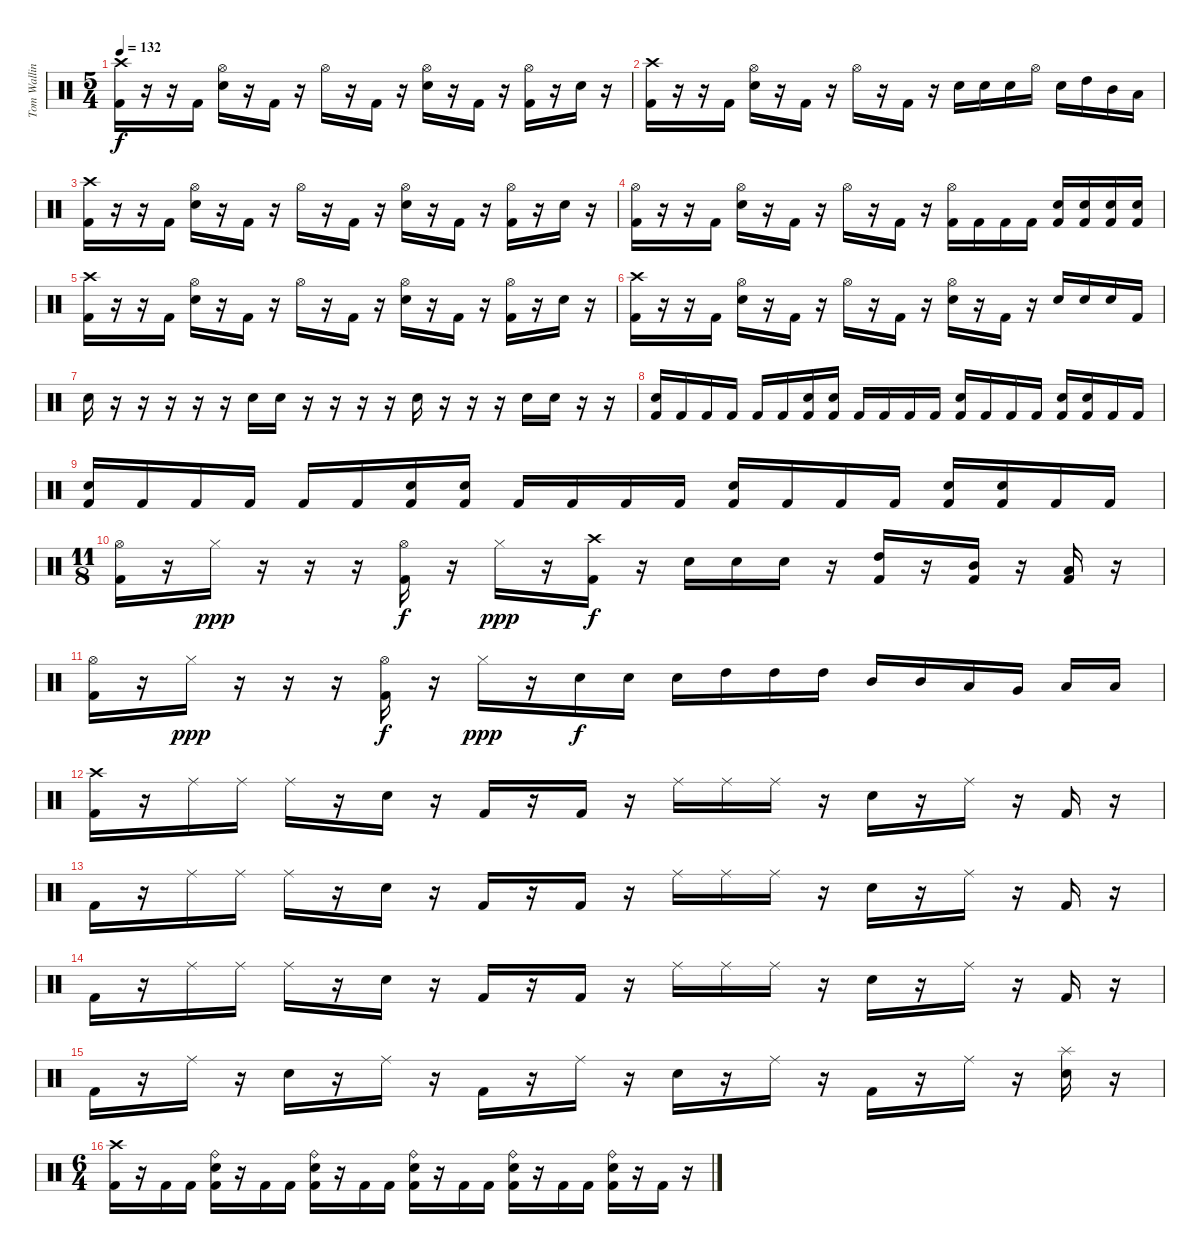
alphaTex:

\track ("Tom Walling [Drums]" "Tom Wallin") {instrument percussion}
\staff {score}
\articulation defaults
\ts (5 4)
\tempo 132
\clef neutral
\ks c
("Crash high (hit)" "Kick (hit) 2").16{dy f} r.16 r.16 "Kick (hit) 2".16 ("Hi-Hat (open)" "Electric Snare (hit)").16 r.16 "Kick (hit) 2".16 r.16 "Hi-Hat (open)".16 r.16 "Kick (hit) 2".16 r.16 ("Hi-Hat (open)" "Electric Snare (hit)").16 r.16 "Kick (hit) 2".16 r.16 ("Hi-Hat (open)" "Kick (hit) 2").16 r.16 "Electric Snare (hit)".16 r.16 |
("Crash high (hit)" "Kick (hit) 2").16 r.16 r.16 "Kick (hit) 2".16 ("Hi-Hat (open)" "Electric Snare (hit)").16 r.16 "Kick (hit) 2".16 r.16 "Hi-Hat (open)".16 r.16 "Kick (hit) 2".16 r.16 "Electric Snare (hit)".16 "Electric Snare (hit)".16 "Electric Snare (hit)".16 "Hi-Hat (open)".16 "Electric Snare (hit)".16 "High Tom (hit)".16 "Mid Tom (hit)".16 "Low Tom (hit)".16 |
("Crash high (hit)" "Kick (hit) 2").16 r.16 r.16 "Kick (hit) 2".16 ("Hi-Hat (open)" "Electric Snare (hit)").16 r.16 "Kick (hit) 2".16 r.16 "Hi-Hat (open)".16 r.16 "Kick (hit) 2".16 r.16 ("Hi-Hat (open)" "Electric Snare (hit)").16 r.16 "Kick (hit) 2".16 r.16 ("Hi-Hat (open)" "Kick (hit) 2").16 r.16 "Electric Snare (hit)".16 r.16 |
("Hi-Hat (open)" "Kick (hit) 2").16 r.16 r.16 "Kick (hit) 2".16 ("Hi-Hat (open)" "Electric Snare (hit)").16 r.16 "Kick (hit) 2".16 r.16 "Hi-Hat (open)".16 r.16 "Kick (hit) 2".16 r.16 ("Hi-Hat (open)" "Kick (hit) 2").16 "Kick (hit) 2".16 "Kick (hit) 2".16 "Kick (hit) 2".16 ("Electric Snare (hit)" "Kick (hit) 2").16 ("Electric Snare (hit)" "Kick (hit) 2").16 ("Electric Snare (hit)" "Kick (hit) 2").16 ("Electric Snare (hit)" "Kick (hit) 2").16 |
("Crash high (hit)" "Kick (hit) 2").16 r.16 r.16 "Kick (hit) 2".16 ("Hi-Hat (open)" "Electric Snare (hit)").16 r.16 "Kick (hit) 2".16 r.16 "Hi-Hat (open)".16 r.16 "Kick (hit) 2".16 r.16 ("Hi-Hat (open)" "Electric Snare (hit)").16 r.16 "Kick (hit) 2".16 r.16 ("Hi-Hat (open)" "Kick (hit) 2").16 r.16 "Electric Snare (hit)".16 r.16 |
("Crash high (hit)" "Kick (hit) 2").16 r.16 r.16 "Kick (hit) 2".16 ("Hi-Hat (open)" "Electric Snare (hit)").16 r.16 "Kick (hit) 2".16 r.16 "Hi-Hat (open)".16 r.16 "Kick (hit) 2".16 r.16 ("Hi-Hat (open)" "Electric Snare (hit)").16 r.16 "Kick (hit) 2".16 r.16 "Electric Snare (hit)".16 "Electric Snare (hit)".16 "Electric Snare (hit)".16 "Kick (hit) 2".16 |
"Electric Snare (hit)".16 r.16 r.16 r.16 r.16 r.16 "Electric Snare (hit)".16 "Electric Snare (hit)".16 r.16 r.16 r.16 r.16 "Electric Snare (hit)".16 r.16 r.16 r.16 "Electric Snare (hit)".16 "Electric Snare (hit)".16 r.16 r.16 |
("Electric Snare (hit)" "Kick (hit) 2").16 "Kick (hit) 2".16 "Kick (hit) 2".16 "Kick (hit) 2".16 "Kick (hit) 2".16 "Kick (hit) 2".16 ("Electric Snare (hit)" "Kick (hit) 2").16 ("Electric Snare (hit)" "Kick (hit) 2").16 "Kick (hit) 2".16 "Kick (hit) 2".16 "Kick (hit) 2".16 "Kick (hit) 2".16 ("Electric Snare (hit)" "Kick (hit) 2").16 "Kick (hit) 2".16 "Kick (hit) 2".16 "Kick (hit) 2".16 ("Electric Snare (hit)" "Kick (hit) 2").16 ("Electric Snare (hit)" "Kick (hit) 2").16 "Kick (hit) 2".16 "Kick (hit) 2".16 |
("Electric Snare (hit)" "Kick (hit) 2").16 "Kick (hit) 2".16 "Kick (hit) 2".16 "Kick (hit) 2".16 "Kick (hit) 2".16 "Kick (hit) 2".16 ("Electric Snare (hit)" "Kick (hit) 2").16 ("Electric Snare (hit)" "Kick (hit) 2").16 "Kick (hit) 2".16 "Kick (hit) 2".16 "Kick (hit) 2".16 "Kick (hit) 2".16 ("Electric Snare (hit)" "Kick (hit) 2").16 "Kick (hit) 2".16 "Kick (hit) 2".16 "Kick (hit) 2".16 ("Electric Snare (hit)" "Kick (hit) 2").16 ("Electric Snare (hit)" "Kick (hit) 2").16 "Kick (hit) 2".16 "Kick (hit) 2".16 |
\ts (11 8)
("Hi-Hat (open)" "Kick (hit) 2").16 r.16 "Hi-Hat (closed)".16{dy ppp} r.16 r.16 r.16 ("Hi-Hat (open)" "Kick (hit) 2").16{dy f} r.16 "Hi-Hat (closed)".16{dy ppp} r.16 ("Crash high (hit)" "Kick (hit) 2").16{dy f} r.16 "Electric Snare (hit)".16 "Electric Snare (hit)".16 "Electric Snare (hit)".16 r.16 ("High Tom (hit)" "Kick (hit) 2").16 r.16 ("Mid Tom (hit)" "Kick (hit) 2").16 r.16 ("Low Tom (hit)" "Kick (hit) 2").16 r.16 |
("Hi-Hat (open)" "Kick (hit) 2").16 r.16 "Hi-Hat (closed)".16{dy ppp} r.16 r.16 r.16 ("Hi-Hat (open)" "Kick (hit) 2").16{dy f} r.16 "Hi-Hat (closed)".16{dy ppp} r.16 "Electric Snare (hit)".16{dy f} "Electric Snare (hit)".16 "Electric Snare (hit)".16 "High Tom (hit)".16 "High Tom (hit)".16 "High Tom (hit)".16 "Mid Tom (hit)".16 "Mid Tom (hit)".16 "Low Tom (hit)".16 "Very Low Tom (hit)".16 "Low Floor Tom (hit)".16 "Low Floor Tom (hit)".16 |
("Crash high (hit)" "Kick (hit) 2").16 r.16 "Ride (middle)".16 "Ride (middle)".16 "Ride (middle)".16 r.16 "Electric Snare (hit)".16 r.16 "Kick (hit) 2".16 r.16 "Kick (hit) 2".16 r.16 "Ride (middle)".16 "Ride (middle)".16 "Ride (middle)".16 r.16 "Electric Snare (hit)".16 r.16 "Ride (middle)".16 r.16 "Kick (hit) 2".16 r.16 |
"Kick (hit) 2".16 r.16 "Ride (middle)".16 "Ride (middle)".16 "Ride (middle)".16 r.16 "Electric Snare (hit)".16 r.16 "Kick (hit) 2".16 r.16 "Kick (hit) 2".16 r.16 "Ride (middle)".16 "Ride (middle)".16 "Ride (middle)".16 r.16 "Electric Snare (hit)".16 r.16 "Ride (middle)".16 r.16 "Kick (hit) 2".16 r.16 |
"Kick (hit) 2".16 r.16 "Ride (middle)".16 "Ride (middle)".16 "Ride (middle)".16 r.16 "Electric Snare (hit)".16 r.16 "Kick (hit) 2".16 r.16 "Kick (hit) 2".16 r.16 "Ride (middle)".16 "Ride (middle)".16 "Ride (middle)".16 r.16 "Electric Snare (hit)".16 r.16 "Ride (middle)".16 r.16 "Kick (hit) 2".16 r.16 |
"Kick (hit) 2".16 r.16 "Ride (middle)".16 r.16 "Electric Snare (hit)".16 r.16 "Ride (middle)".16 r.16 "Kick (hit) 2".16 r.16 "Ride (middle)".16 r.16 "Electric Snare (hit)".16 r.16 "Ride (middle)".16 r.16 "Kick (hit) 2".16 r.16 "Ride (middle)".16 r.16 ("Splash (hit)" "Electric Snare (hit)").16 r.16 |
\ts (6 4)
("Crash high (hit)" "Kick (hit) 2").16 r.16 "Kick (hit) 2".16 "Kick (hit) 2".16 ("Ride (bell)" "Electric Snare (hit)" "Kick (hit) 2").16 r.16 "Kick (hit) 2".16 "Kick (hit) 2".16 ("Ride (bell)" "Electric Snare (hit)" "Kick (hit) 2").16 r.16 "Kick (hit) 2".16 "Kick (hit) 2".16 ("Ride (bell)" "Electric Snare (hit)" "Kick (hit) 2").16 r.16 "Kick (hit) 2".16 "Kick (hit) 2".16 ("Ride (bell)" "Electric Snare (hit)" "Kick (hit) 2").16 r.16 "Kick (hit) 2".16 "Kick (hit) 2".16 ("Ride (bell)" "Electric Snare (hit)" "Kick (hit) 2").16 r.16 "Kick (hit) 2".16 r.16
